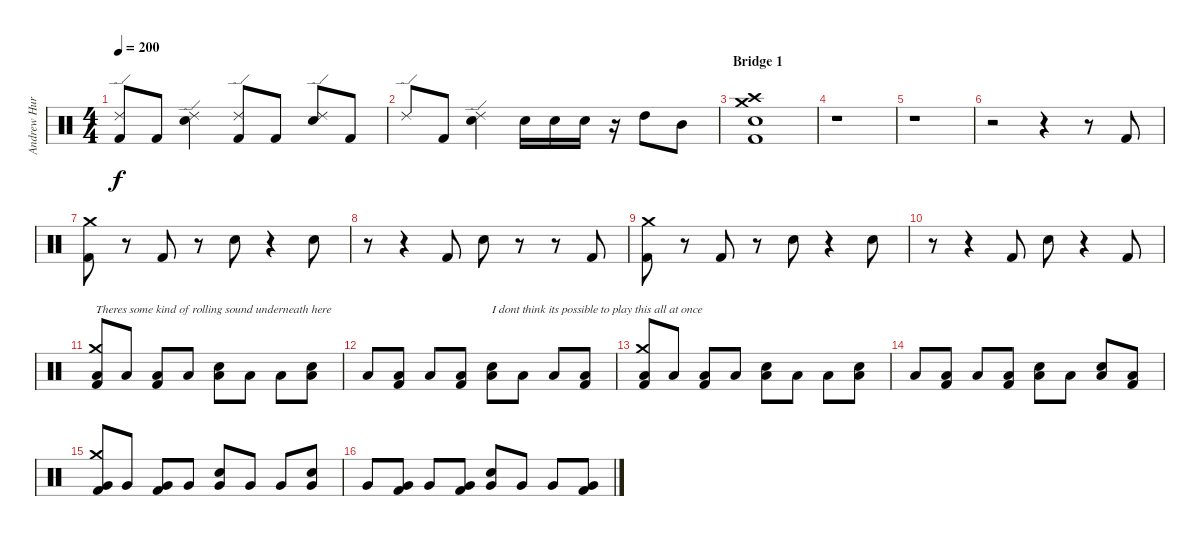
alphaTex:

\track ("Andrew Hurley (Drums)" "Andrew Hur") {instrument percussion}
\staff {score}
\articulation defaults
\ts (4 4)
\tempo 200
\clef neutral
\ks c
("Kick (hit) 2" "Ride (edge) 2").8{dy f} "Kick (hit) 2".8 ("Electric Snare (hit)" "Ride (edge) 2").4 ("Kick (hit) 2" "Ride (edge) 2").8 "Kick (hit) 2".8 ("Electric Snare (hit)" "Ride (edge) 2").8 "Kick (hit) 2".8 |
"Ride (edge) 2".8 "Kick (hit) 2".8 ("Electric Snare (hit)" "Ride (edge) 2").4 "Electric Snare (hit)".16 "Electric Snare (hit)".16 "Electric Snare (hit)".16 r.16 "High Tom (hit)".8 "Mid Tom (hit)".8 |
\section ("" "Bridge 1")
("Electric Snare (hit)" "Kick (hit) 2" "Crash high (hit)" "Crash medium (hit)").1 |
r.1 |
r.1 |
r.2 r.4 r.8 "Kick (hit) 2".8 |
("Kick (hit) 2" "Crash medium (hit)").8 r.8 "Kick (hit) 2".8 r.8 "Electric Snare (hit)".8 r.4 "Electric Snare (hit)".8 |
r.8 r.4 "Kick (hit) 2".8 "Electric Snare (hit)".8 r.8 r.8 "Kick (hit) 2".8 |
("Kick (hit) 2" "Crash medium (hit)").8 r.8 "Kick (hit) 2".8 r.8 "Electric Snare (hit)".8 r.4 "Electric Snare (hit)".8 |
r.8 r.4 "Kick (hit) 2".8 "Electric Snare (hit)".8 r.4 "Kick (hit) 2".8 |
("Kick (hit) 2" "Low Floor Tom (hit)" "Crash medium (hit)").8{txt "Theres some kind of rolling sound underneath here"} "Low Floor Tom (hit)".8 ("Kick (hit) 2" "Low Floor Tom (hit)").8 "Low Floor Tom (hit)".8 ("Electric Snare (hit)" "Low Floor Tom (hit)").8 "Low Floor Tom (hit)".8 "Low Floor Tom (hit)".8 ("Electric Snare (hit)" "Low Floor Tom (hit)").8 |
"Low Floor Tom (hit)".8 ("Kick (hit) 2" "Low Floor Tom (hit)").8 "Low Floor Tom (hit)".8 ("Kick (hit) 2" "Low Floor Tom (hit)").8 ("Electric Snare (hit)" "Low Floor Tom (hit)").8{txt "I dont think its possible to play this all at once"} "Low Floor Tom (hit)".8 "Low Floor Tom (hit)".8 ("Kick (hit) 2" "Low Floor Tom (hit)").8 |
("Kick (hit) 2" "Low Floor Tom (hit)" "Crash medium (hit)").8 "Low Floor Tom (hit)".8 ("Kick (hit) 2" "Low Floor Tom (hit)").8 "Low Floor Tom (hit)".8 ("Electric Snare (hit)" "Low Floor Tom (hit)").8 "Low Floor Tom (hit)".8 "Low Floor Tom (hit)".8 ("Electric Snare (hit)" "Low Floor Tom (hit)").8 |
"Low Floor Tom (hit)".8 ("Kick (hit) 2" "Low Floor Tom (hit)").8 "Low Floor Tom (hit)".8 ("Kick (hit) 2" "Low Floor Tom (hit)").8 ("Electric Snare (hit)" "Low Floor Tom (hit)").8 "Low Floor Tom (hit)".8 ("Electric Snare (hit)" "Low Floor Tom (hit)").8 ("Kick (hit) 2" "Low Floor Tom (hit)").8 |
("Kick (hit) 2" "Very Low Tom (hit)" "Crash medium (hit)").8 "Very Low Tom (hit)".8 ("Kick (hit) 2" "Very Low Tom (hit)").8 "Very Low Tom (hit)".8 ("Electric Snare (hit)" "Very Low Tom (hit)").8 "Very Low Tom (hit)".8 "Very Low Tom (hit)".8 ("Electric Snare (hit)" "Very Low Tom (hit)").8 |
"Very Low Tom (hit)".8 ("Kick (hit) 2" "Very Low Tom (hit)").8 "Very Low Tom (hit)".8 ("Kick (hit) 2" "Very Low Tom (hit)").8 ("Electric Snare (hit)" "Very Low Tom (hit)").8 "Very Low Tom (hit)".8 "Very Low Tom (hit)".8 ("Kick (hit) 2" "Very Low Tom (hit)").8
